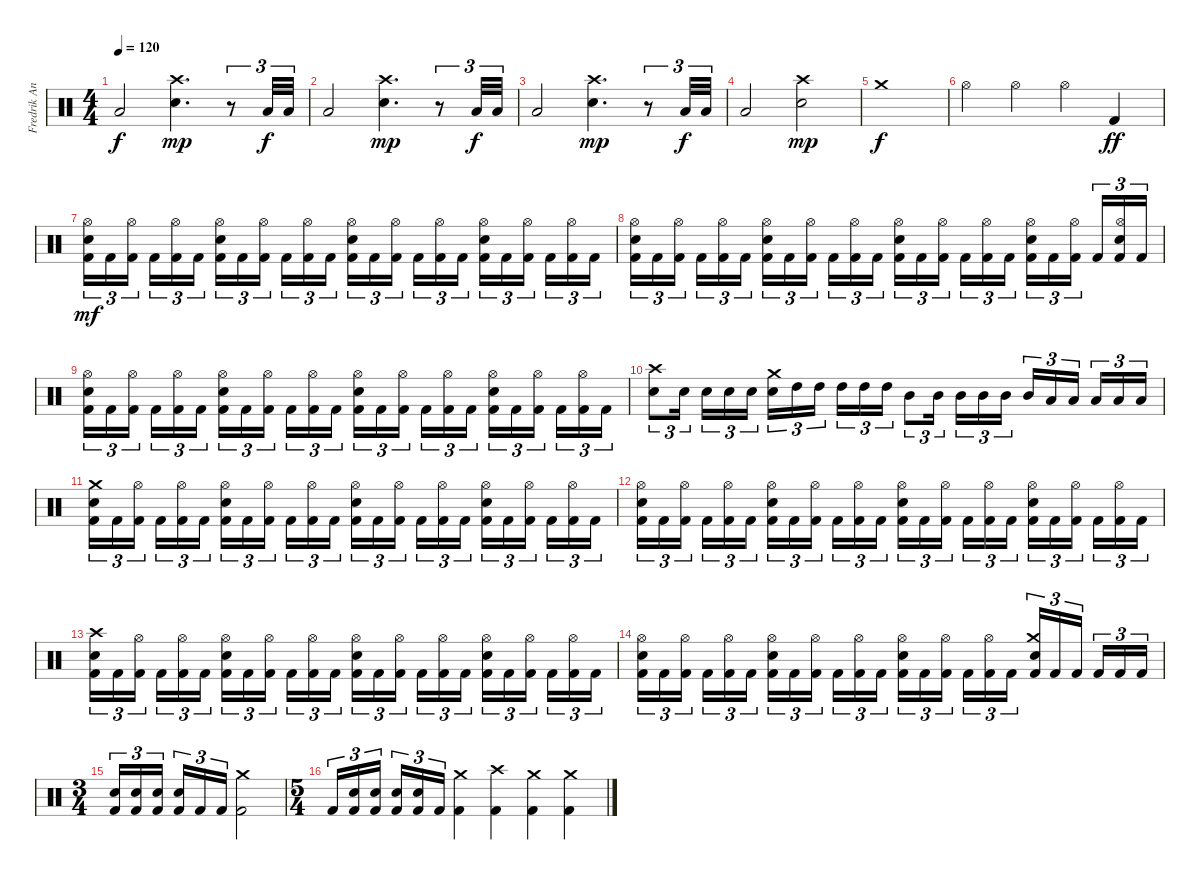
\track ("Fredrik Andersson" "Fredrik An") {instrument percussion}
\staff {score}
\articulation defaults
\ts (4 4)
\tempo 120
\clef neutral
\ks c "Low Tom (hit)".2{dy f}
("Crash high (hit)" "Snare (hit) 2").4{d dy mp} r.8{tu (3 2)} "Low Tom (hit)".32{tu (3 2) dy f} "Low Tom (hit)".32{tu (3 2)} |
"Low Tom (hit)".2 ("Crash high (hit)" "Snare (hit) 2").4{d dy mp} r.8{tu (3 2)} "Low Tom (hit)".32{tu (3 2) dy f} "Low Tom (hit)".32{tu (3 2)} |
"Low Tom (hit)".2 ("Crash high (hit)" "Snare (hit) 2").4{d dy mp} r.8{tu (3 2)} "Low Tom (hit)".32{tu (3 2) dy f} "Low Tom (hit)".32{tu (3 2)} |
"Low Tom (hit)".2 ("Crash high (hit)" "Snare (hit) 2").2{dy mp} |
"Crash medium (hit)".1{dy f} |
"Hi-Hat (open)".4 "Hi-Hat (open)".4 "Hi-Hat (open)".4 "Kick (hit) 2".4{dy ff} |
("Snare (hit) 2" "Hi-Hat (open)" "Kick (hit) 2").16{tu (3 2) dy mf} "Kick (hit) 2".16{tu (3 2)} ("Hi-Hat (open)" "Kick (hit) 2").16{tu (3 2) beam splitsecondary} "Kick (hit) 2".16{tu (3 2)} ("Hi-Hat (open)" "Kick (hit) 2").16{tu (3 2)} "Kick (hit) 2".16{tu (3 2)} ("Snare (hit) 2" "Hi-Hat (open)" "Kick (hit) 2").16{tu (3 2)} "Kick (hit) 2".16{tu (3 2)} ("Hi-Hat (open)" "Kick (hit) 2").16{tu (3 2) beam splitsecondary} "Kick (hit) 2".16{tu (3 2)} ("Hi-Hat (open)" "Kick (hit) 2").16{tu (3 2)} "Kick (hit) 2".16{tu (3 2)} ("Snare (hit) 2" "Hi-Hat (open)" "Kick (hit) 2").16{tu (3 2)} "Kick (hit) 2".16{tu (3 2)} ("Hi-Hat (open)" "Kick (hit) 2").16{tu (3 2) beam splitsecondary} "Kick (hit) 2".16{tu (3 2)} ("Hi-Hat (open)" "Kick (hit) 2").16{tu (3 2)} "Kick (hit) 2".16{tu (3 2)} ("Snare (hit) 2" "Hi-Hat (open)" "Kick (hit) 2").16{tu (3 2)} "Kick (hit) 2".16{tu (3 2)} ("Hi-Hat (open)" "Kick (hit) 2").16{tu (3 2) beam splitsecondary} "Kick (hit) 2".16{tu (3 2)} ("Hi-Hat (open)" "Kick (hit) 2").16{tu (3 2)} "Kick (hit) 2".16{tu (3 2)} |
("Snare (hit) 2" "Hi-Hat (open)" "Kick (hit) 2").16{tu (3 2)} "Kick (hit) 2".16{tu (3 2)} ("Hi-Hat (open)" "Kick (hit) 2").16{tu (3 2) beam splitsecondary} "Kick (hit) 2".16{tu (3 2)} ("Hi-Hat (open)" "Kick (hit) 2").16{tu (3 2)} "Kick (hit) 2".16{tu (3 2)} ("Snare (hit) 2" "Hi-Hat (open)" "Kick (hit) 2").16{tu (3 2)} "Kick (hit) 2".16{tu (3 2)} ("Hi-Hat (open)" "Kick (hit) 2").16{tu (3 2) beam splitsecondary} "Kick (hit) 2".16{tu (3 2)} ("Hi-Hat (open)" "Kick (hit) 2").16{tu (3 2)} "Kick (hit) 2".16{tu (3 2)} ("Snare (hit) 2" "Hi-Hat (open)" "Kick (hit) 2").16{tu (3 2)} "Kick (hit) 2".16{tu (3 2)} ("Hi-Hat (open)" "Kick (hit) 2").16{tu (3 2) beam splitsecondary} "Kick (hit) 2".16{tu (3 2)} ("Hi-Hat (open)" "Kick (hit) 2").16{tu (3 2)} "Kick (hit) 2".16{tu (3 2)} ("Snare (hit) 2" "Hi-Hat (open)" "Kick (hit) 2").16{tu (3 2)} "Kick (hit) 2".16{tu (3 2)} ("Hi-Hat (open)" "Kick (hit) 2").16{tu (3 2) beam splitsecondary} "Kick (hit) 2".16{tu (3 2)} ("Snare (hit) 2" "Hi-Hat (open)" "Kick (hit) 2").16{tu (3 2)} "Kick (hit) 2".16{tu (3 2)} |
("Snare (hit) 2" "Hi-Hat (open)" "Kick (hit) 2").16{tu (3 2)} "Kick (hit) 2".16{tu (3 2)} ("Hi-Hat (open)" "Kick (hit) 2").16{tu (3 2) beam splitsecondary} "Kick (hit) 2".16{tu (3 2)} ("Hi-Hat (open)" "Kick (hit) 2").16{tu (3 2)} "Kick (hit) 2".16{tu (3 2)} ("Snare (hit) 2" "Hi-Hat (open)" "Kick (hit) 2").16{tu (3 2)} "Kick (hit) 2".16{tu (3 2)} ("Hi-Hat (open)" "Kick (hit) 2").16{tu (3 2) beam splitsecondary} "Kick (hit) 2".16{tu (3 2)} ("Hi-Hat (open)" "Kick (hit) 2").16{tu (3 2)} "Kick (hit) 2".16{tu (3 2)} ("Snare (hit) 2" "Hi-Hat (open)" "Kick (hit) 2").16{tu (3 2)} "Kick (hit) 2".16{tu (3 2)} ("Hi-Hat (open)" "Kick (hit) 2").16{tu (3 2) beam splitsecondary} "Kick (hit) 2".16{tu (3 2)} ("Hi-Hat (open)" "Kick (hit) 2").16{tu (3 2)} "Kick (hit) 2".16{tu (3 2)} ("Snare (hit) 2" "Hi-Hat (open)" "Kick (hit) 2").16{tu (3 2)} "Kick (hit) 2".16{tu (3 2)} ("Hi-Hat (open)" "Kick (hit) 2").16{tu (3 2) beam splitsecondary} "Kick (hit) 2".16{tu (3 2)} ("Hi-Hat (open)" "Kick (hit) 2").16{tu (3 2)} "Kick (hit) 2".16{tu (3 2)} |
("Crash high (hit)" "Snare (hit) 2").8{tu (3 2)} "Snare (hit) 2".16{tu (3 2) beam splitsecondary} "Snare (hit) 2".16{tu (3 2)} "Snare (hit) 2".16{tu (3 2)} "Snare (hit) 2".16{tu (3 2)} ("Crash medium (hit)" "Snare (hit) 2").16{tu (3 2)} "High Tom (hit)".16{tu (3 2)} "High Tom (hit)".16{tu (3 2) beam splitsecondary} "High Tom (hit)".16{tu (3 2)} "High Tom (hit)".16{tu (3 2)} "High Tom (hit)".16{tu (3 2)} "Mid Tom (hit)".8{tu (3 2)} "Mid Tom (hit)".16{tu (3 2) beam splitsecondary} "Mid Tom (hit)".16{tu (3 2)} "Mid Tom (hit)".16{tu (3 2)} "Mid Tom (hit)".16{tu (3 2)} "Mid Tom (hit)".16{tu (3 2)} "Low Tom (hit)".16{tu (3 2)} "Low Tom (hit)".16{tu (3 2) beam splitsecondary} "Low Tom (hit)".16{tu (3 2)} "Low Tom (hit)".16{tu (3 2)} "Low Tom (hit)".16{tu (3 2)} |
("Snare (hit) 2" "Crash medium (hit)" "Kick (hit) 2").16{tu (3 2)} "Kick (hit) 2".16{tu (3 2)} ("Hi-Hat (open)" "Kick (hit) 2").16{tu (3 2) beam splitsecondary} "Kick (hit) 2".16{tu (3 2)} ("Hi-Hat (open)" "Kick (hit) 2").16{tu (3 2)} "Kick (hit) 2".16{tu (3 2)} ("Snare (hit) 2" "Hi-Hat (open)" "Kick (hit) 2").16{tu (3 2)} "Kick (hit) 2".16{tu (3 2)} ("Hi-Hat (open)" "Kick (hit) 2").16{tu (3 2) beam splitsecondary} "Kick (hit) 2".16{tu (3 2)} ("Hi-Hat (open)" "Kick (hit) 2").16{tu (3 2)} "Kick (hit) 2".16{tu (3 2)} ("Snare (hit) 2" "Hi-Hat (open)" "Kick (hit) 2").16{tu (3 2)} "Kick (hit) 2".16{tu (3 2)} ("Hi-Hat (open)" "Kick (hit) 2").16{tu (3 2) beam splitsecondary} "Kick (hit) 2".16{tu (3 2)} ("Hi-Hat (open)" "Kick (hit) 2").16{tu (3 2)} "Kick (hit) 2".16{tu (3 2)} ("Snare (hit) 2" "Hi-Hat (open)" "Kick (hit) 2").16{tu (3 2)} "Kick (hit) 2".16{tu (3 2)} ("Hi-Hat (open)" "Kick (hit) 2").16{tu (3 2) beam splitsecondary} "Kick (hit) 2".16{tu (3 2)} ("Hi-Hat (open)" "Kick (hit) 2").16{tu (3 2)} "Kick (hit) 2".16{tu (3 2)} |
("Snare (hit) 2" "Hi-Hat (open)" "Kick (hit) 2").16{tu (3 2)} "Kick (hit) 2".16{tu (3 2)} ("Hi-Hat (open)" "Kick (hit) 2").16{tu (3 2) beam splitsecondary} "Kick (hit) 2".16{tu (3 2)} ("Hi-Hat (open)" "Kick (hit) 2").16{tu (3 2)} "Kick (hit) 2".16{tu (3 2)} ("Snare (hit) 2" "Hi-Hat (open)" "Kick (hit) 2").16{tu (3 2)} "Kick (hit) 2".16{tu (3 2)} ("Hi-Hat (open)" "Kick (hit) 2").16{tu (3 2) beam splitsecondary} "Kick (hit) 2".16{tu (3 2)} ("Hi-Hat (open)" "Kick (hit) 2").16{tu (3 2)} "Kick (hit) 2".16{tu (3 2)} ("Snare (hit) 2" "Hi-Hat (open)" "Kick (hit) 2").16{tu (3 2)} "Kick (hit) 2".16{tu (3 2)} ("Hi-Hat (open)" "Kick (hit) 2").16{tu (3 2) beam splitsecondary} "Kick (hit) 2".16{tu (3 2)} ("Hi-Hat (open)" "Kick (hit) 2").16{tu (3 2)} "Kick (hit) 2".16{tu (3 2)} ("Snare (hit) 2" "Hi-Hat (open)" "Kick (hit) 2").16{tu (3 2)} "Kick (hit) 2".16{tu (3 2)} ("Hi-Hat (open)" "Kick (hit) 2").16{tu (3 2) beam splitsecondary} "Kick (hit) 2".16{tu (3 2)} ("Hi-Hat (open)" "Kick (hit) 2").16{tu (3 2)} "Kick (hit) 2".16{tu (3 2)} |
("Snare (hit) 2" "Crash high (hit)" "Kick (hit) 2").16{tu (3 2)} "Kick (hit) 2".16{tu (3 2)} ("Hi-Hat (open)" "Kick (hit) 2").16{tu (3 2) beam splitsecondary} "Kick (hit) 2".16{tu (3 2)} ("Hi-Hat (open)" "Kick (hit) 2").16{tu (3 2)} "Kick (hit) 2".16{tu (3 2)} ("Snare (hit) 2" "Hi-Hat (open)" "Kick (hit) 2").16{tu (3 2)} "Kick (hit) 2".16{tu (3 2)} ("Hi-Hat (open)" "Kick (hit) 2").16{tu (3 2) beam splitsecondary} "Kick (hit) 2".16{tu (3 2)} ("Hi-Hat (open)" "Kick (hit) 2").16{tu (3 2)} "Kick (hit) 2".16{tu (3 2)} ("Snare (hit) 2" "Hi-Hat (open)" "Kick (hit) 2").16{tu (3 2)} "Kick (hit) 2".16{tu (3 2)} ("Hi-Hat (open)" "Kick (hit) 2").16{tu (3 2) beam splitsecondary} "Kick (hit) 2".16{tu (3 2)} ("Hi-Hat (open)" "Kick (hit) 2").16{tu (3 2)} "Kick (hit) 2".16{tu (3 2)} ("Snare (hit) 2" "Hi-Hat (open)" "Kick (hit) 2").16{tu (3 2)} "Kick (hit) 2".16{tu (3 2)} ("Hi-Hat (open)" "Kick (hit) 2").16{tu (3 2) beam splitsecondary} "Kick (hit) 2".16{tu (3 2)} ("Hi-Hat (open)" "Kick (hit) 2").16{tu (3 2)} "Kick (hit) 2".16{tu (3 2)} |
("Snare (hit) 2" "Hi-Hat (open)" "Kick (hit) 2").16{tu (3 2)} "Kick (hit) 2".16{tu (3 2)} ("Hi-Hat (open)" "Kick (hit) 2").16{tu (3 2) beam splitsecondary} "Kick (hit) 2".16{tu (3 2)} ("Hi-Hat (open)" "Kick (hit) 2").16{tu (3 2)} "Kick (hit) 2".16{tu (3 2)} ("Snare (hit) 2" "Hi-Hat (open)" "Kick (hit) 2").16{tu (3 2)} "Kick (hit) 2".16{tu (3 2)} ("Hi-Hat (open)" "Kick (hit) 2").16{tu (3 2) beam splitsecondary} "Kick (hit) 2".16{tu (3 2)} ("Hi-Hat (open)" "Kick (hit) 2").16{tu (3 2)} "Kick (hit) 2".16{tu (3 2)} ("Snare (hit) 2" "Hi-Hat (open)" "Kick (hit) 2").16{tu (3 2)} "Kick (hit) 2".16{tu (3 2)} ("Hi-Hat (open)" "Kick (hit) 2").16{tu (3 2) beam splitsecondary} "Kick (hit) 2".16{tu (3 2)} ("Hi-Hat (open)" "Kick (hit) 2").16{tu (3 2)} "Kick (hit) 2".16{tu (3 2)} ("Snare (hit) 2" "Crash medium (hit)" "Kick (hit) 2").16{tu (3 2)} "Kick (hit) 2".16{tu (3 2)} "Kick (hit) 2".16{tu (3 2) beam splitsecondary} "Kick (hit) 2".16{tu (3 2)} "Kick (hit) 2".16{tu (3 2)} "Kick (hit) 2".16{tu (3 2)} |
\ts (3 4)
("Snare (hit) 2" "Kick (hit) 2").16{tu (3 2)} ("Snare (hit) 2" "Kick (hit) 2").16{tu (3 2)} ("Snare (hit) 2" "Kick (hit) 2").16{tu (3 2) beam splitsecondary} ("Snare (hit) 2" "Kick (hit) 2").16{tu (3 2)} "Kick (hit) 2".16{tu (3 2)} "Kick (hit) 2".16{tu (3 2)} ("Crash medium (hit)" "Kick (hit) 2").2 |
\ts (5 4)
"Kick (hit) 2".16{tu (3 2)} ("Snare (hit) 2" "Kick (hit) 2").16{tu (3 2)} ("Snare (hit) 2" "Kick (hit) 2").16{tu (3 2) beam splitsecondary} ("Snare (hit) 2" "Kick (hit) 2").16{tu (3 2)} ("Snare (hit) 2" "Kick (hit) 2").16{tu (3 2)} "Kick (hit) 2".16{tu (3 2)} ("Crash medium (hit)" "Kick (hit) 2").4 ("Crash high (hit)" "Kick (hit) 2").4 ("Crash medium (hit)" "Kick (hit) 2").4 ("Crash medium (hit)" "Kick (hit) 2").4
